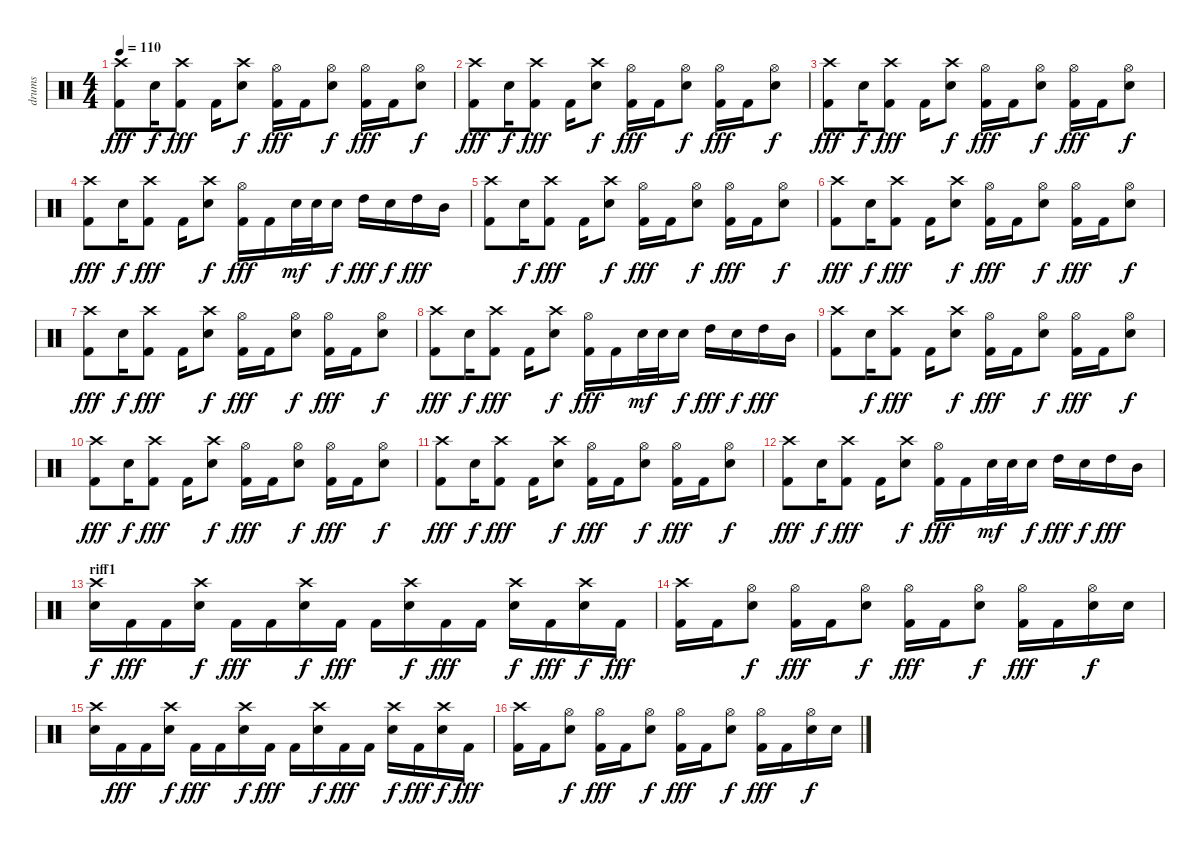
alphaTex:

\track ("drums" "drums") {instrument percussion}
\staff {score}
\articulation defaults
\ts (4 4)
\tempo 110
\clef neutral
\ks c
("Crash high (hit)" "Kick (hit) 2").8{dy fff} "Snare (hit) 2".16{dy f} ("Crash high (hit)" "Kick (hit) 2").8{dy fff} "Kick (hit) 2".16 ("Crash high (hit)" "Snare (hit) 2").8{dy f} ("Hi-Hat (open)" "Kick (hit) 2").16{dy fff} "Kick (hit) 2".16 ("Hi-Hat (open)" "Snare (hit) 2").8{dy f} ("Hi-Hat (open)" "Kick (hit) 2").16{dy fff} "Kick (hit) 2".16 ("Hi-Hat (open)" "Snare (hit) 2").8{dy f} |
("Crash high (hit)" "Kick (hit) 2").8{dy fff} "Snare (hit) 2".16{dy f} ("Crash high (hit)" "Kick (hit) 2").8{dy fff} "Kick (hit) 2".16 ("Crash high (hit)" "Snare (hit) 2").8{dy f} ("Hi-Hat (open)" "Kick (hit) 2").16{dy fff} "Kick (hit) 2".16 ("Hi-Hat (open)" "Snare (hit) 2").8{dy f} ("Hi-Hat (open)" "Kick (hit) 2").16{dy fff} "Kick (hit) 2".16 ("Hi-Hat (open)" "Snare (hit) 2").8{dy f} |
("Crash high (hit)" "Kick (hit) 2").8{dy fff} "Snare (hit) 2".16{dy f} ("Crash high (hit)" "Kick (hit) 2").8{dy fff} "Kick (hit) 2".16 ("Crash high (hit)" "Snare (hit) 2").8{dy f} ("Hi-Hat (open)" "Kick (hit) 2").16{dy fff} "Kick (hit) 2".16 ("Hi-Hat (open)" "Snare (hit) 2").8{dy f} ("Hi-Hat (open)" "Kick (hit) 2").16{dy fff} "Kick (hit) 2".16 ("Hi-Hat (open)" "Snare (hit) 2").8{dy f} |
("Crash high (hit)" "Kick (hit) 2").8{dy fff} "Snare (hit) 2".16{dy f} ("Crash high (hit)" "Kick (hit) 2").8{dy fff} "Kick (hit) 2".16 ("Crash high (hit)" "Snare (hit) 2").8{dy f} ("Hi-Hat (open)" "Kick (hit) 2").16{dy fff} "Kick (hit) 2".16 "Snare (hit) 2".32{dy mf} "Snare (hit) 2".32 "Snare (hit) 2".16{dy f} "High Tom (hit)".16{dy fff} "Snare (hit) 2".16{dy f} "High Tom (hit)".16{dy fff} "Mid Tom (hit)".16 |
("Crash high (hit)" "Kick (hit) 2").8 "Snare (hit) 2".16{dy f} ("Crash high (hit)" "Kick (hit) 2").8{dy fff} "Kick (hit) 2".16 ("Crash high (hit)" "Snare (hit) 2").8{dy f} ("Hi-Hat (open)" "Kick (hit) 2").16{dy fff} "Kick (hit) 2".16 ("Hi-Hat (open)" "Snare (hit) 2").8{dy f} ("Hi-Hat (open)" "Kick (hit) 2").16{dy fff} "Kick (hit) 2".16 ("Hi-Hat (open)" "Snare (hit) 2").8{dy f} |
("Crash high (hit)" "Kick (hit) 2").8{dy fff} "Snare (hit) 2".16{dy f} ("Crash high (hit)" "Kick (hit) 2").8{dy fff} "Kick (hit) 2".16 ("Crash high (hit)" "Snare (hit) 2").8{dy f} ("Hi-Hat (open)" "Kick (hit) 2").16{dy fff} "Kick (hit) 2".16 ("Hi-Hat (open)" "Snare (hit) 2").8{dy f} ("Hi-Hat (open)" "Kick (hit) 2").16{dy fff} "Kick (hit) 2".16 ("Hi-Hat (open)" "Snare (hit) 2").8{dy f} |
("Crash high (hit)" "Kick (hit) 2").8{dy fff} "Snare (hit) 2".16{dy f} ("Crash high (hit)" "Kick (hit) 2").8{dy fff} "Kick (hit) 2".16 ("Crash high (hit)" "Snare (hit) 2").8{dy f} ("Hi-Hat (open)" "Kick (hit) 2").16{dy fff} "Kick (hit) 2".16 ("Hi-Hat (open)" "Snare (hit) 2").8{dy f} ("Hi-Hat (open)" "Kick (hit) 2").16{dy fff} "Kick (hit) 2".16 ("Hi-Hat (open)" "Snare (hit) 2").8{dy f} |
("Crash high (hit)" "Kick (hit) 2").8{dy fff} "Snare (hit) 2".16{dy f} ("Crash high (hit)" "Kick (hit) 2").8{dy fff} "Kick (hit) 2".16 ("Crash high (hit)" "Snare (hit) 2").8{dy f} ("Hi-Hat (open)" "Kick (hit) 2").16{dy fff} "Kick (hit) 2".16 "Snare (hit) 2".32{dy mf} "Snare (hit) 2".32 "Snare (hit) 2".16{dy f} "High Tom (hit)".16{dy fff} "Snare (hit) 2".16{dy f} "High Tom (hit)".16{dy fff} "Mid Tom (hit)".16 |
("Crash high (hit)" "Kick (hit) 2").8 "Snare (hit) 2".16{dy f} ("Crash high (hit)" "Kick (hit) 2").8{dy fff} "Kick (hit) 2".16 ("Crash high (hit)" "Snare (hit) 2").8{dy f} ("Hi-Hat (open)" "Kick (hit) 2").16{dy fff} "Kick (hit) 2".16 ("Hi-Hat (open)" "Snare (hit) 2").8{dy f} ("Hi-Hat (open)" "Kick (hit) 2").16{dy fff} "Kick (hit) 2".16 ("Hi-Hat (open)" "Snare (hit) 2").8{dy f} |
("Crash high (hit)" "Kick (hit) 2").8{dy fff} "Snare (hit) 2".16{dy f} ("Crash high (hit)" "Kick (hit) 2").8{dy fff} "Kick (hit) 2".16 ("Crash high (hit)" "Snare (hit) 2").8{dy f} ("Hi-Hat (open)" "Kick (hit) 2").16{dy fff} "Kick (hit) 2".16 ("Hi-Hat (open)" "Snare (hit) 2").8{dy f} ("Hi-Hat (open)" "Kick (hit) 2").16{dy fff} "Kick (hit) 2".16 ("Hi-Hat (open)" "Snare (hit) 2").8{dy f} |
("Crash high (hit)" "Kick (hit) 2").8{dy fff} "Snare (hit) 2".16{dy f} ("Crash high (hit)" "Kick (hit) 2").8{dy fff} "Kick (hit) 2".16 ("Crash high (hit)" "Snare (hit) 2").8{dy f} ("Hi-Hat (open)" "Kick (hit) 2").16{dy fff} "Kick (hit) 2".16 ("Hi-Hat (open)" "Snare (hit) 2").8{dy f} ("Hi-Hat (open)" "Kick (hit) 2").16{dy fff} "Kick (hit) 2".16 ("Hi-Hat (open)" "Snare (hit) 2").8{dy f} |
("Crash high (hit)" "Kick (hit) 2").8{dy fff} "Snare (hit) 2".16{dy f} ("Crash high (hit)" "Kick (hit) 2").8{dy fff} "Kick (hit) 2".16 ("Crash high (hit)" "Snare (hit) 2").8{dy f} ("Hi-Hat (open)" "Kick (hit) 2").16{dy fff} "Kick (hit) 2".16 "Snare (hit) 2".32{dy mf} "Snare (hit) 2".32 "Snare (hit) 2".16{dy f} "High Tom (hit)".16{dy fff} "Snare (hit) 2".16{dy f} "High Tom (hit)".16{dy fff} "Mid Tom (hit)".16 |
\section ("" "riff1")
("Crash high (hit)" "Snare (hit) 2").16{dy f} "Kick (hit) 2".16{dy fff} "Kick (hit) 2".16 ("Crash high (hit)" "Snare (hit) 2").16{dy f} "Kick (hit) 2".16{dy fff} "Kick (hit) 2".16 ("Crash high (hit)" "Snare (hit) 2").16{dy f} "Kick (hit) 2".16{dy fff} "Kick (hit) 2".16 ("Crash high (hit)" "Snare (hit) 2").16{dy f} "Kick (hit) 2".16{dy fff} "Kick (hit) 2".16 ("Crash high (hit)" "Snare (hit) 2").16{dy f} "Kick (hit) 2".16{dy fff} ("Crash high (hit)" "Snare (hit) 2").16{dy f} "Kick (hit) 2".16{dy fff} |
("Crash high (hit)" "Kick (hit) 2").16 "Kick (hit) 2".16 ("Hi-Hat (open)" "Snare (hit) 2").8{dy f} ("Hi-Hat (open)" "Kick (hit) 2").16{dy fff} "Kick (hit) 2".16 ("Hi-Hat (open)" "Snare (hit) 2").8{dy f} ("Hi-Hat (open)" "Kick (hit) 2").16{dy fff} "Kick (hit) 2".16 ("Hi-Hat (open)" "Snare (hit) 2").8{dy f} ("Hi-Hat (open)" "Kick (hit) 2").16{dy fff} "Kick (hit) 2".16 ("Hi-Hat (open)" "Snare (hit) 2").16{dy f} "Snare (hit) 2".16 |
("Crash high (hit)" "Snare (hit) 2").16 "Kick (hit) 2".16{dy fff} "Kick (hit) 2".16 ("Crash high (hit)" "Snare (hit) 2").16{dy f} "Kick (hit) 2".16{dy fff} "Kick (hit) 2".16 ("Crash high (hit)" "Snare (hit) 2").16{dy f} "Kick (hit) 2".16{dy fff} "Kick (hit) 2".16 ("Crash high (hit)" "Snare (hit) 2").16{dy f} "Kick (hit) 2".16{dy fff} "Kick (hit) 2".16 ("Crash high (hit)" "Snare (hit) 2").16{dy f} "Kick (hit) 2".16{dy fff} ("Crash high (hit)" "Snare (hit) 2").16{dy f} "Kick (hit) 2".16{dy fff} |
("Crash high (hit)" "Kick (hit) 2").16 "Kick (hit) 2".16 ("Hi-Hat (open)" "Snare (hit) 2").8{dy f} ("Hi-Hat (open)" "Kick (hit) 2").16{dy fff} "Kick (hit) 2".16 ("Hi-Hat (open)" "Snare (hit) 2").8{dy f} ("Hi-Hat (open)" "Kick (hit) 2").16{dy fff} "Kick (hit) 2".16 ("Hi-Hat (open)" "Snare (hit) 2").8{dy f} ("Hi-Hat (open)" "Kick (hit) 2").16{dy fff} "Kick (hit) 2".16 ("Hi-Hat (open)" "Snare (hit) 2").16{dy f} "Snare (hit) 2".16
